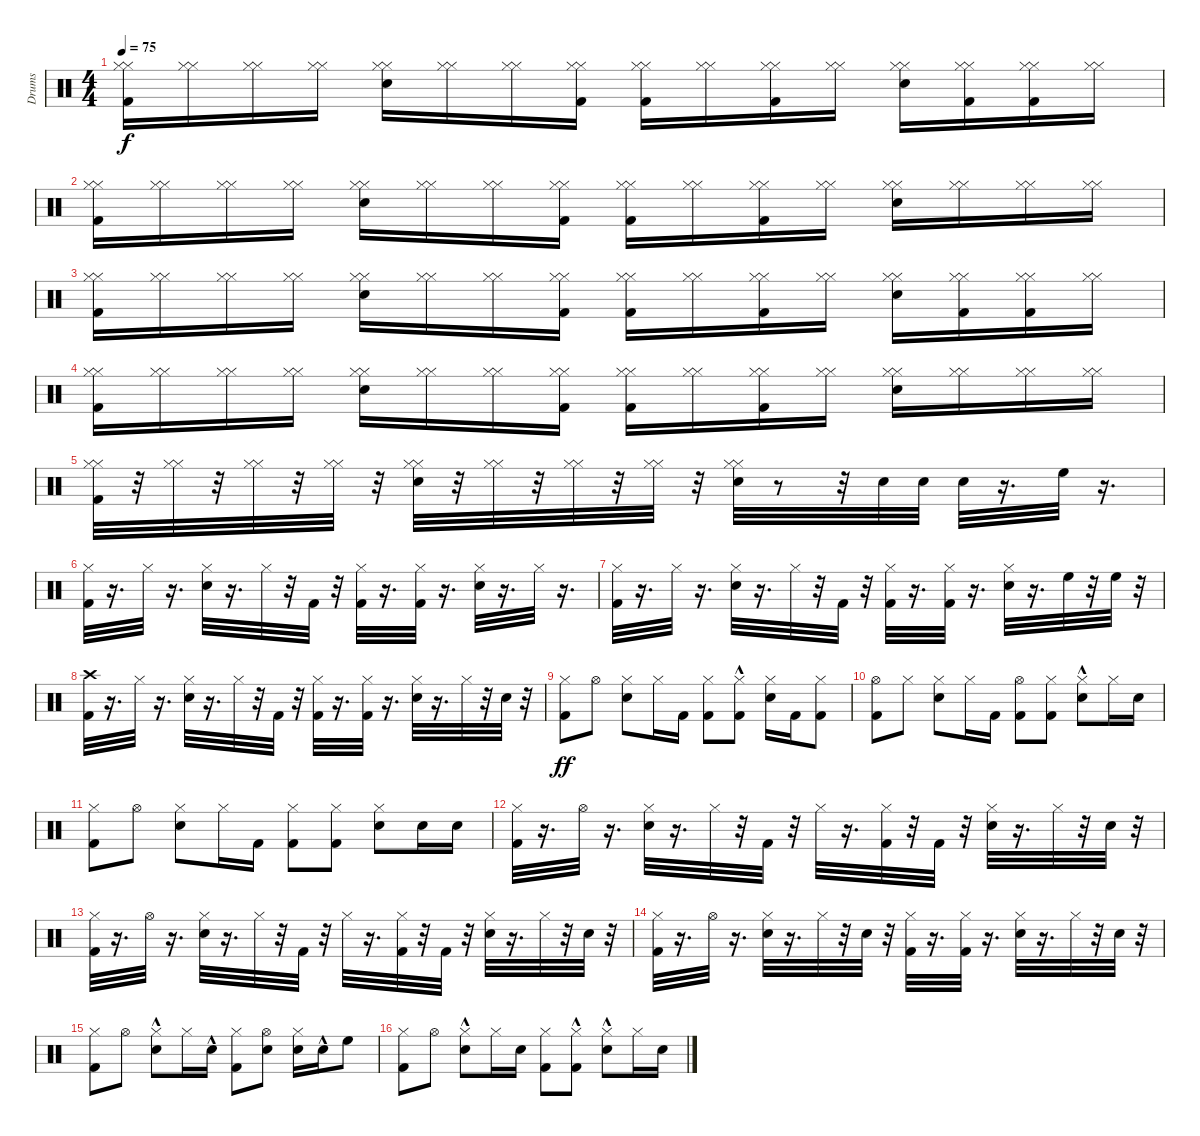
\track ("Drums" "Drums") {instrument percussion}
\staff {score}
\articulation defaults
\ts (4 4)
\tempo 75
\clef neutral
\ks c
("Hi-Hat (closed)" "Kick (hit) 2" "Hi-Hat (closed)").16{dy f} ("Hi-Hat (closed)" "Hi-Hat (closed)").16 ("Hi-Hat (closed)" "Hi-Hat (closed)").16 ("Hi-Hat (closed)" "Hi-Hat (closed)").16 ("Hi-Hat (closed)" "Snare (hit) 2" "Hi-Hat (closed)").16 ("Hi-Hat (closed)" "Hi-Hat (closed)").16 ("Hi-Hat (closed)" "Hi-Hat (closed)").16 ("Hi-Hat (closed)" "Kick (hit) 2" "Hi-Hat (closed)").16 ("Hi-Hat (closed)" "Kick (hit) 2" "Hi-Hat (closed)").16 ("Hi-Hat (closed)" "Hi-Hat (closed)").16 ("Hi-Hat (closed)" "Kick (hit) 2" "Hi-Hat (closed)").16 ("Hi-Hat (closed)" "Hi-Hat (closed)").16 ("Hi-Hat (closed)" "Snare (hit) 2" "Hi-Hat (closed)").16 ("Hi-Hat (closed)" "Kick (hit) 2" "Hi-Hat (closed)").16 ("Kick (hit) 2" "Hi-Hat (closed)" "Hi-Hat (closed)").16 ("Hi-Hat (closed)" "Hi-Hat (closed)").16 |
("Hi-Hat (closed)" "Kick (hit) 2" "Hi-Hat (closed)").16 ("Hi-Hat (closed)" "Hi-Hat (closed)").16 ("Hi-Hat (closed)" "Hi-Hat (closed)").16 ("Hi-Hat (closed)" "Hi-Hat (closed)").16 ("Hi-Hat (closed)" "Snare (hit) 2" "Hi-Hat (closed)").16 ("Hi-Hat (closed)" "Hi-Hat (closed)").16 ("Hi-Hat (closed)" "Hi-Hat (closed)").16 ("Hi-Hat (closed)" "Kick (hit) 2" "Hi-Hat (closed)").16 ("Hi-Hat (closed)" "Kick (hit) 2" "Hi-Hat (closed)").16 ("Hi-Hat (closed)" "Hi-Hat (closed)").16 ("Hi-Hat (closed)" "Kick (hit) 2" "Hi-Hat (closed)").16 ("Hi-Hat (closed)" "Hi-Hat (closed)").16 ("Hi-Hat (closed)" "Snare (hit) 2" "Hi-Hat (closed)").16 ("Hi-Hat (closed)" "Hi-Hat (closed)").16 ("Hi-Hat (closed)" "Hi-Hat (closed)").16 ("Hi-Hat (closed)" "Hi-Hat (closed)").16 |
("Hi-Hat (closed)" "Kick (hit) 2" "Hi-Hat (closed)").16 ("Hi-Hat (closed)" "Hi-Hat (closed)").16 ("Hi-Hat (closed)" "Hi-Hat (closed)").16 ("Hi-Hat (closed)" "Hi-Hat (closed)").16 ("Hi-Hat (closed)" "Snare (hit) 2" "Hi-Hat (closed)").16 ("Hi-Hat (closed)" "Hi-Hat (closed)").16 ("Hi-Hat (closed)" "Hi-Hat (closed)").16 ("Hi-Hat (closed)" "Kick (hit) 2" "Hi-Hat (closed)").16 ("Hi-Hat (closed)" "Kick (hit) 2" "Hi-Hat (closed)").16 ("Hi-Hat (closed)" "Hi-Hat (closed)").16 ("Hi-Hat (closed)" "Kick (hit) 2" "Hi-Hat (closed)").16 ("Hi-Hat (closed)" "Hi-Hat (closed)").16 ("Hi-Hat (closed)" "Snare (hit) 2" "Hi-Hat (closed)").16 ("Hi-Hat (closed)" "Kick (hit) 2" "Hi-Hat (closed)").16 ("Kick (hit) 2" "Hi-Hat (closed)" "Hi-Hat (closed)").16 ("Hi-Hat (closed)" "Hi-Hat (closed)").16 |
("Hi-Hat (closed)" "Kick (hit) 2" "Hi-Hat (closed)").16 ("Hi-Hat (closed)" "Hi-Hat (closed)").16 ("Hi-Hat (closed)" "Hi-Hat (closed)").16 ("Hi-Hat (closed)" "Hi-Hat (closed)").16 ("Hi-Hat (closed)" "Snare (hit) 2" "Hi-Hat (closed)").16 ("Hi-Hat (closed)" "Hi-Hat (closed)").16 ("Hi-Hat (closed)" "Hi-Hat (closed)").16 ("Hi-Hat (closed)" "Kick (hit) 2" "Hi-Hat (closed)").16 ("Hi-Hat (closed)" "Kick (hit) 2" "Hi-Hat (closed)").16 ("Hi-Hat (closed)" "Hi-Hat (closed)").16 ("Hi-Hat (closed)" "Kick (hit) 2" "Hi-Hat (closed)").16 ("Hi-Hat (closed)" "Hi-Hat (closed)").16 ("Hi-Hat (closed)" "Snare (hit) 2" "Hi-Hat (closed)").16 ("Hi-Hat (closed)" "Hi-Hat (closed)").16 ("Hi-Hat (closed)" "Hi-Hat (closed)").16 ("Hi-Hat (closed)" "Hi-Hat (closed)").16 |
("Kick (hit) 2" "Hi-Hat (closed)" "Hi-Hat (closed)").32 r.32 ("Hi-Hat (closed)" "Hi-Hat (closed)").32 r.32 ("Hi-Hat (closed)" "Hi-Hat (closed)").32 r.32 ("Hi-Hat (closed)" "Hi-Hat (closed)").32 r.32 ("Snare (hit) 2" "Hi-Hat (closed)" "Hi-Hat (closed)").32 r.32 ("Hi-Hat (closed)" "Hi-Hat (closed)").32 r.32 ("Hi-Hat (closed)" "Hi-Hat (closed)").32 r.32 ("Hi-Hat (closed)" "Hi-Hat (closed)").32 r.32 ("Snare (hit) 2" "Hi-Hat (closed)" "Hi-Hat (closed)").32 r.8 r.32 "Snare (hit) 2".32 "Snare (hit) 2".32 "Snare (hit) 2".32 r.16{d} "High Floor Tom (hit)".32 r.16{d} |
("Kick (hit) 2" "Hi-Hat (closed)").32 r.16{d} "Hi-Hat (closed)".32 r.16{d} ("Snare (hit) 2" "Hi-Hat (closed)").32 r.16{d} "Hi-Hat (closed)".32 r.32 "Kick (hit) 2".32 r.32 ("Kick (hit) 2" "Hi-Hat (closed)").32 r.16{d} ("Kick (hit) 2" "Hi-Hat (closed)").32 r.16{d} ("Snare (hit) 2" "Hi-Hat (closed)").32 r.16{d} "Hi-Hat (closed)".32 r.16{d} |
("Kick (hit) 2" "Hi-Hat (closed)").32 r.16{d} "Hi-Hat (closed)".32 r.16{d} ("Snare (hit) 2" "Hi-Hat (closed)").32 r.16{d} "Hi-Hat (closed)".32 r.32 "Kick (hit) 2".32 r.32 ("Kick (hit) 2" "Hi-Hat (closed)").32 r.16{d} ("Kick (hit) 2" "Hi-Hat (closed)").32 r.16{d} ("Snare (hit) 2" "Hi-Hat (closed)").32 r.16{d} "High Floor Tom (hit)".32 r.32 "High Floor Tom (hit)".32 r.32 |
("Kick (hit) 2" "Crash high (hit)").32 r.16{d} "Hi-Hat (closed)".32 r.16{d} ("Snare (hit) 2" "Hi-Hat (closed)").32 r.16{d} "Hi-Hat (closed)".32 r.32 "Kick (hit) 2".32 r.32 ("Kick (hit) 2" "Hi-Hat (closed)").32 r.16{d} ("Kick (hit) 2" "Hi-Hat (closed)").32 r.16{d} ("Snare (hit) 2" "Hi-Hat (closed)").32 r.16{d} "Hi-Hat (closed)".32 r.32 "Snare (hit) 2".32 r.32 |
("Kick (hit) 2" "Hi-Hat (closed)").8{dy ff} "Hi-Hat (open)".8 ("Snare (hit) 2" "Hi-Hat (closed)").8 "Hi-Hat (closed)".16 "Kick (hit) 2".16 ("Kick (hit) 2" "Hi-Hat (closed)").8 ("Kick (hit) 2"{hac} "Hi-Hat (closed)").8 ("Snare (hit) 2" "Hi-Hat (closed)").16 "Kick (hit) 2".16 ("Hi-Hat (closed)" "Kick (hit) 2").8 |
("Kick (hit) 2" "Hi-Hat (open)").8 "Hi-Hat (closed)".8 ("Snare (hit) 2" "Hi-Hat (closed)").8 "Hi-Hat (closed)".16 "Kick (hit) 2".16 ("Kick (hit) 2" "Hi-Hat (open)").8 ("Kick (hit) 2" "Hi-Hat (closed)").8 ("Snare (hit) 2"{hac} "Hi-Hat (closed)").8 "Hi-Hat (closed)".16 "Snare (hit) 2".16 |
("Kick (hit) 2" "Hi-Hat (closed)").8 "Hi-Hat (open)".8 ("Snare (hit) 2" "Hi-Hat (closed)").8 "Hi-Hat (closed)".16 "Kick (hit) 2".16 ("Kick (hit) 2" "Hi-Hat (closed)").8 ("Kick (hit) 2" "Hi-Hat (closed)").8 ("Hi-Hat (closed)" "Snare (hit) 2").8 "Snare (hit) 2".16 "Snare (hit) 2".16 |
("Kick (hit) 2" "Hi-Hat (closed)").32 r.16{d} "Hi-Hat (open)".32 r.16{d} ("Snare (hit) 2" "Hi-Hat (closed)").32 r.16{d} "Hi-Hat (closed)".32 r.32 "Kick (hit) 2".32 r.32 "Hi-Hat (closed)".32 r.16{d} ("Kick (hit) 2" "Hi-Hat (closed)").32 r.32 "Kick (hit) 2".32 r.32 ("Snare (hit) 2" "Hi-Hat (closed)").32 r.16{d} "Hi-Hat (closed)".32 r.32 "Snare (hit) 2".32 r.32 |
("Kick (hit) 2" "Hi-Hat (closed)").32 r.16{d} "Hi-Hat (open)".32 r.16{d} ("Snare (hit) 2" "Hi-Hat (closed)").32 r.16{d} "Hi-Hat (closed)".32 r.32 "Kick (hit) 2".32 r.32 "Hi-Hat (closed)".32 r.16{d} ("Kick (hit) 2" "Hi-Hat (closed)").32 r.32 "Kick (hit) 2".32 r.32 ("Snare (hit) 2" "Hi-Hat (closed)").32 r.16{d} "Hi-Hat (closed)".32 r.32 "Snare (hit) 2".32 r.32 |
("Kick (hit) 2" "Hi-Hat (closed)").32 r.16{d} "Hi-Hat (open)".32 r.16{d} ("Snare (hit) 2" "Hi-Hat (closed)").32 r.16{d} "Hi-Hat (closed)".32 r.32 "Snare (hit) 2".32 r.32 ("Kick (hit) 2" "Hi-Hat (closed)").32 r.16{d} ("Kick (hit) 2" "Hi-Hat (closed)").32 r.16{d} ("Snare (hit) 2" "Hi-Hat (closed)").32 r.16{d} "Hi-Hat (closed)".32 r.32 "Snare (hit) 2".32 r.32 |
("Kick (hit) 2" "Hi-Hat (closed)").8 "Hi-Hat (open)".8 ("Snare (hit) 2"{hac} "Hi-Hat (closed)").8 "Hi-Hat (closed)".16 "Snare (hit) 2"{hac}.16 ("Kick (hit) 2" "Hi-Hat (closed)").8 ("Hi-Hat (open)" "Snare (hit) 2").8 ("Hi-Hat (closed)" "Snare (hit) 2").16 "Snare (hit) 2"{hac}.16 "High Floor Tom (hit)".8 |
("Kick (hit) 2" "Hi-Hat (closed)").8 "Hi-Hat (open)".8 ("Snare (hit) 2"{hac} "Hi-Hat (closed)").8 "Hi-Hat (closed)".16 "Snare (hit) 2".16 ("Kick (hit) 2" "Hi-Hat (closed)").8 ("Kick (hit) 2"{hac} "Hi-Hat (closed)").8 ("Snare (hit) 2"{hac} "Hi-Hat (closed)").8 "Hi-Hat (closed)".16 "Snare (hit) 2".16
